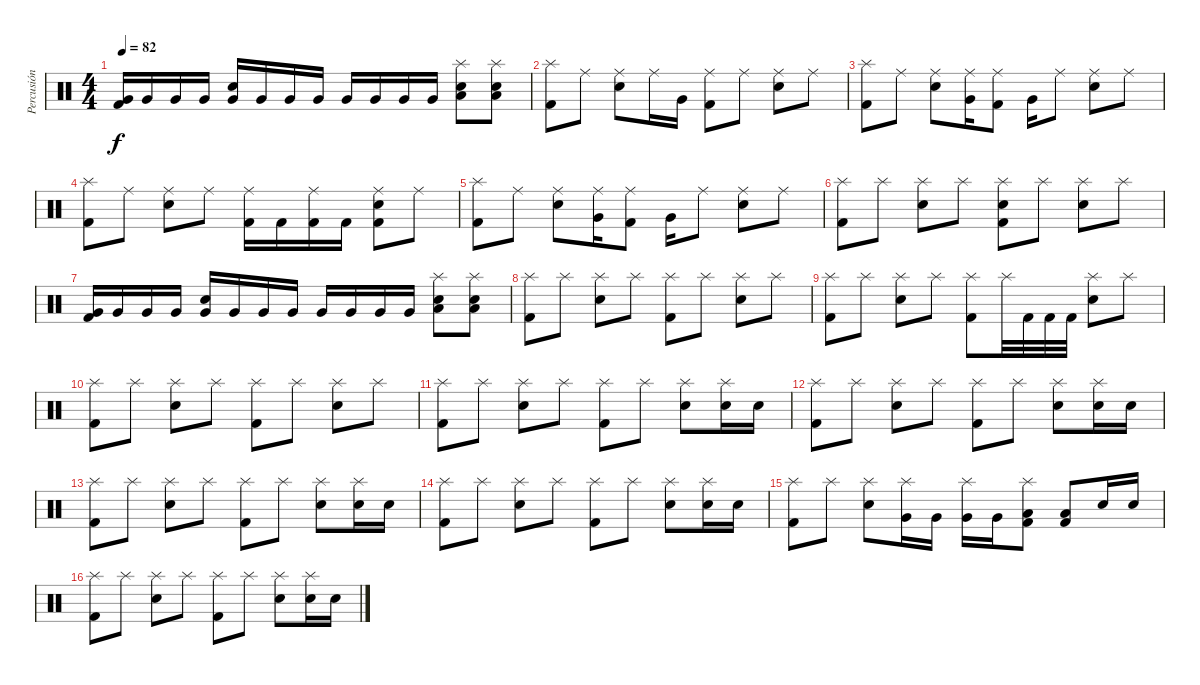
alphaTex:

\track ("Percusión" "Percusión") {instrument percussion}
\staff {score}
\articulation defaults
\ts (4 4)
\tempo 82
\clef neutral
\ks c
("Very Low Tom (hit)" "Kick (hit) 2").16{dy f} "Very Low Tom (hit)".16 "Very Low Tom (hit)".16 "Very Low Tom (hit)".16 ("Very Low Tom (hit)" "Snare (hit) 2").16 "Very Low Tom (hit)".16 "Very Low Tom (hit)".16 "Very Low Tom (hit)".16 "Very Low Tom (hit)".16 "Very Low Tom (hit)".16 "Very Low Tom (hit)".16 "Very Low Tom (hit)".16 ("Splash (hit)" "Low Tom (hit)" "Snare (hit) 2").8 ("Splash (hit)" "Low Tom (hit)" "Snare (hit) 2").8 |
("Splash (hit)" "Kick (hit) 2").8 "Ride (middle)".8 ("Ride (middle)" "Snare (hit) 2").8 "Ride (middle)".16 "Very Low Tom (hit)".16 ("Ride (middle)" "Kick (hit) 2").8 "Ride (middle)".8 ("Ride (middle)" "Snare (hit) 2").8 "Ride (middle)".8 |
("Splash (hit)" "Kick (hit) 2").8 "Ride (middle)".8 ("Ride (middle)" "Snare (hit) 2").8 ("Ride (middle)" "Very Low Tom (hit)").16 ("Ride (middle)" "Kick (hit) 2").8 "Very Low Tom (hit)".16 "Ride (middle)".8 ("Ride (middle)" "Snare (hit) 2").8 "Ride (middle)".8 |
("Splash (hit)" "Kick (hit) 2").8 "Ride (middle)".8 ("Ride (middle)" "Snare (hit) 2").8 "Ride (middle)".8 ("Ride (middle)" "Kick (hit) 2").16 "Kick (hit) 2".16 ("Ride (middle)" "Kick (hit) 2").16 "Kick (hit) 2".16 ("Ride (middle)" "Snare (hit) 2" "Kick (hit) 2").8 "Ride (middle)".8 |
("Splash (hit)" "Kick (hit) 2").8 "Ride (middle)".8 ("Ride (middle)" "Snare (hit) 2").8 ("Ride (middle)" "Very Low Tom (hit)").16 ("Ride (middle)" "Kick (hit) 2").8 "Very Low Tom (hit)".16 "Ride (middle)".8 ("Ride (middle)" "Snare (hit) 2").8 "Ride (middle)".8 |
("Splash (hit)" "Kick (hit) 2").8 "Splash (hit)".8 ("Splash (hit)" "Snare (hit) 2").8 "Splash (hit)".8 ("Splash (hit)" "Snare (hit) 2" "Kick (hit) 2").8 "Splash (hit)".8 ("Splash (hit)" "Snare (hit) 2").8 "Splash (hit)".8 |
("Very Low Tom (hit)" "Kick (hit) 2").16 "Very Low Tom (hit)".16 "Very Low Tom (hit)".16 "Very Low Tom (hit)".16 ("Very Low Tom (hit)" "Snare (hit) 2").16 "Very Low Tom (hit)".16 "Very Low Tom (hit)".16 "Very Low Tom (hit)".16 "Very Low Tom (hit)".16 "Very Low Tom (hit)".16 "Very Low Tom (hit)".16 "Very Low Tom (hit)".16 ("Splash (hit)" "Low Tom (hit)" "Snare (hit) 2").8 ("Splash (hit)" "Low Tom (hit)" "Snare (hit) 2").8 |
("Splash (hit)" "Kick (hit) 2").8 "Splash (hit)".8 ("Splash (hit)" "Snare (hit) 2").8 "Splash (hit)".8 ("Splash (hit)" "Kick (hit) 2").8 "Splash (hit)".8 ("Splash (hit)" "Snare (hit) 2").8 "Splash (hit)".8 |
("Splash (hit)" "Kick (hit) 2").8 "Splash (hit)".8 ("Splash (hit)" "Snare (hit) 2").8 "Splash (hit)".8 ("Splash (hit)" "Kick (hit) 2").8 "Splash (hit)".32 "Kick (hit) 2".32 "Kick (hit) 2".32 "Kick (hit) 2".32 ("Splash (hit)" "Snare (hit) 2").8 "Splash (hit)".8 |
("Splash (hit)" "Kick (hit) 2").8 "Splash (hit)".8 ("Splash (hit)" "Snare (hit) 2").8 "Splash (hit)".8 ("Splash (hit)" "Kick (hit) 2").8 "Splash (hit)".8 ("Splash (hit)" "Snare (hit) 2").8 "Splash (hit)".8 |
("Splash (hit)" "Kick (hit) 2").8 "Splash (hit)".8 ("Splash (hit)" "Snare (hit) 2").8 "Splash (hit)".8 ("Splash (hit)" "Kick (hit) 2").8 "Splash (hit)".8 ("Splash (hit)" "Snare (hit) 2").8 ("Splash (hit)" "Snare (hit) 2").16 "Snare (hit) 2".16 |
("Splash (hit)" "Kick (hit) 2").8 "Splash (hit)".8 ("Splash (hit)" "Snare (hit) 2").8 "Splash (hit)".8 ("Splash (hit)" "Kick (hit) 2").8 "Splash (hit)".8 ("Splash (hit)" "Snare (hit) 2").8 ("Splash (hit)" "Snare (hit) 2").16 "Snare (hit) 2".16 |
("Splash (hit)" "Kick (hit) 2").8 "Splash (hit)".8 ("Splash (hit)" "Snare (hit) 2").8 "Splash (hit)".8 ("Splash (hit)" "Kick (hit) 2").8 "Splash (hit)".8 ("Splash (hit)" "Snare (hit) 2").8 ("Splash (hit)" "Snare (hit) 2").16 "Snare (hit) 2".16 |
("Splash (hit)" "Kick (hit) 2").8 "Splash (hit)".8 ("Splash (hit)" "Snare (hit) 2").8 "Splash (hit)".8 ("Splash (hit)" "Kick (hit) 2").8 "Splash (hit)".8 ("Splash (hit)" "Snare (hit) 2").8 ("Splash (hit)" "Snare (hit) 2").16 "Snare (hit) 2".16 |
("Splash (hit)" "Kick (hit) 2").8 "Splash (hit)".8 ("Splash (hit)" "Snare (hit) 2").8 ("Splash (hit)" "Very Low Tom (hit)").16 "Very Low Tom (hit)".16 ("Splash (hit)" "Very Low Tom (hit)").16 "Very Low Tom (hit)".16 ("Splash (hit)" "Low Tom (hit)" "Kick (hit) 2").8 ("Low Tom (hit)" "Kick (hit) 2").8 "Snare (hit) 2".16 "Snare (hit) 2".16 |
("Splash (hit)" "Kick (hit) 2").8 "Splash (hit)".8 ("Splash (hit)" "Snare (hit) 2").8 "Splash (hit)".8 ("Splash (hit)" "Kick (hit) 2").8 "Splash (hit)".8 ("Splash (hit)" "Snare (hit) 2").8 ("Splash (hit)" "Snare (hit) 2").16 "Snare (hit) 2".16
